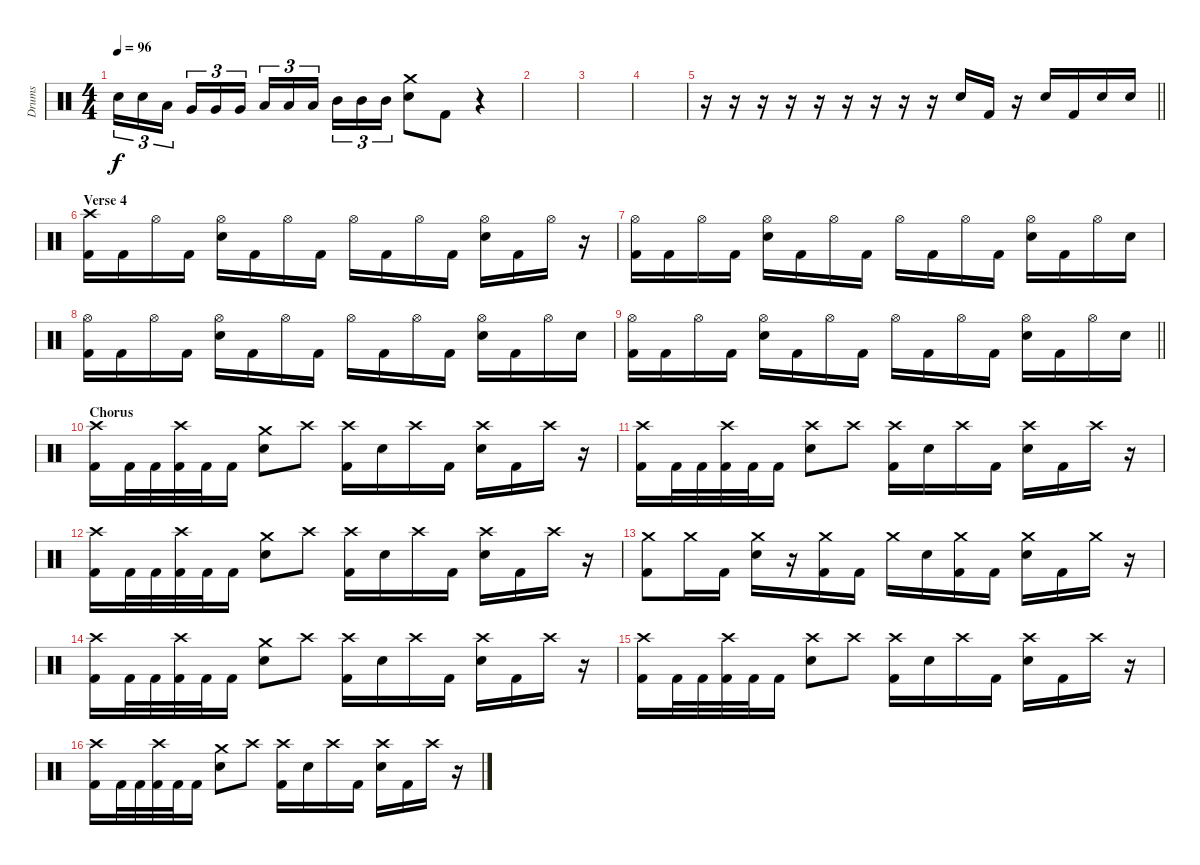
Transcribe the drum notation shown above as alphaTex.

\track ("Drums" "Drums") {instrument percussion}
\staff {score}
\articulation defaults
\ts (4 4)
\tempo 96
\clef neutral
\ks c "Electric Snare (hit)".16{tu (3 2) dy f} "Electric Snare (hit)".16{tu (3 2)} "Low Floor Tom (hit)".16{tu (3 2)} "Very Low Tom (hit)".16{tu (3 2)} "Very Low Tom (hit)".16{tu (3 2)} "Very Low Tom (hit)".16{tu (3 2)} "Low Tom (hit)".16{tu (3 2)} "Low Tom (hit)".16{tu (3 2)} "Low Tom (hit)".16{tu (3 2)} "Mid Tom (hit)".16{tu (3 2)} "Mid Tom (hit)".16{tu (3 2)} "Mid Tom (hit)".16{tu (3 2)}
("Electric Snare (hit)" "Crash medium (hit)").8 "Kick (hit) 2".8 r.4 |
|
|
|
\barLineRight lightlight
r.16 r.16 r.16 r.16 r.16 r.16 r.16 r.16 r.16 "Electric Snare (hit)".16 "Kick (hit) 2".16 r.16 "Electric Snare (hit)".16 "Kick (hit) 2".16 "Electric Snare (hit)".16 "Electric Snare (hit)".16 |
\section ("" "Verse 4")
("Crash high (hit)" "Kick (hit) 2").16 "Kick (hit) 2".16 "Hi-Hat (open)".16 "Kick (hit) 2".16 ("Hi-Hat (open)" "Electric Snare (hit)").16 "Kick (hit) 2".16 "Hi-Hat (open)".16 "Kick (hit) 2".16 "Hi-Hat (open)".16 "Kick (hit) 2".16 "Hi-Hat (open)".16 "Kick (hit) 2".16 ("Hi-Hat (open)" "Electric Snare (hit)").16 "Kick (hit) 2".16 "Hi-Hat (open)".16 r.16 |
("Hi-Hat (open)" "Kick (hit) 2").16 "Kick (hit) 2".16 "Hi-Hat (open)".16 "Kick (hit) 2".16 ("Hi-Hat (open)" "Electric Snare (hit)").16 "Kick (hit) 2".16 "Hi-Hat (open)".16 "Kick (hit) 2".16 "Hi-Hat (open)".16 "Kick (hit) 2".16 "Hi-Hat (open)".16 "Kick (hit) 2".16 ("Hi-Hat (open)" "Electric Snare (hit)").16 "Kick (hit) 2".16 "Hi-Hat (open)".16 "Electric Snare (hit)".16 |
("Hi-Hat (open)" "Kick (hit) 2").16 "Kick (hit) 2".16 "Hi-Hat (open)".16 "Kick (hit) 2".16 ("Hi-Hat (open)" "Electric Snare (hit)").16 "Kick (hit) 2".16 "Hi-Hat (open)".16 "Kick (hit) 2".16 "Hi-Hat (open)".16 "Kick (hit) 2".16 "Hi-Hat (open)".16 "Kick (hit) 2".16 ("Hi-Hat (open)" "Electric Snare (hit)").16 "Kick (hit) 2".16 "Hi-Hat (open)".16 "Electric Snare (hit)".16 |
\barLineRight lightlight
("Hi-Hat (open)" "Kick (hit) 2").16 "Kick (hit) 2".16 "Hi-Hat (open)".16 "Kick (hit) 2".16 ("Hi-Hat (open)" "Electric Snare (hit)").16 "Kick (hit) 2".16 "Hi-Hat (open)".16 "Kick (hit) 2".16 "Hi-Hat (open)".16 "Kick (hit) 2".16 "Hi-Hat (open)".16 "Kick (hit) 2".16 ("Hi-Hat (open)" "Electric Snare (hit)").16 "Kick (hit) 2".16 "Hi-Hat (open)".16 "Electric Snare (hit)".16 |
\section ("" "Chorus")
("Crash high (hit)" "Kick (hit) 2").16 "Kick (hit) 2".32 "Kick (hit) 2".32 ("Crash high (hit)" "Kick (hit) 2").32 "Kick (hit) 2".32 "Kick (hit) 2".16 ("Crash medium (hit)" "Electric Snare (hit)").8 "Crash high (hit)".8 ("Crash high (hit)" "Kick (hit) 2").16 "Electric Snare (hit)".16 "Crash high (hit)".16 "Kick (hit) 2".16 ("Crash high (hit)" "Electric Snare (hit)").16 "Kick (hit) 2".16 "Crash high (hit)".16 r.16 |
("Crash high (hit)" "Kick (hit) 2").16 "Kick (hit) 2".32 "Kick (hit) 2".32 ("Crash high (hit)" "Kick (hit) 2").32 "Kick (hit) 2".32 "Kick (hit) 2".16 ("Crash high (hit)" "Electric Snare (hit)").8 "Crash high (hit)".8 ("Crash high (hit)" "Kick (hit) 2").16 "Electric Snare (hit)".16 "Crash high (hit)".16 "Kick (hit) 2".16 ("Crash high (hit)" "Electric Snare (hit)").16 "Kick (hit) 2".16 "Crash high (hit)".16 r.16 |
("Crash high (hit)" "Kick (hit) 2").16 "Kick (hit) 2".32 "Kick (hit) 2".32 ("Crash high (hit)" "Kick (hit) 2").32 "Kick (hit) 2".32 "Kick (hit) 2".16 ("Crash medium (hit)" "Electric Snare (hit)").8 "Crash high (hit)".8 ("Crash high (hit)" "Kick (hit) 2").16 "Electric Snare (hit)".16 "Crash high (hit)".16 "Kick (hit) 2".16 ("Crash high (hit)" "Electric Snare (hit)").16 "Kick (hit) 2".16 "Crash high (hit)".16 r.16 |
("Crash medium (hit)" "Kick (hit) 2").8 "Crash medium (hit)".16 "Kick (hit) 2".16 ("Crash medium (hit)" "Electric Snare (hit)").16 r.16 ("Crash medium (hit)" "Kick (hit) 2").16 "Kick (hit) 2".16 "Crash medium (hit)".16 "Electric Snare (hit)".16 ("Crash medium (hit)" "Kick (hit) 2").16 "Kick (hit) 2".16 ("Crash medium (hit)" "Electric Snare (hit)").16 "Kick (hit) 2".16 "Crash medium (hit)".16 r.16 |
("Crash high (hit)" "Kick (hit) 2").16 "Kick (hit) 2".32 "Kick (hit) 2".32 ("Crash high (hit)" "Kick (hit) 2").32 "Kick (hit) 2".32 "Kick (hit) 2".16 ("Crash medium (hit)" "Electric Snare (hit)").8 "Crash high (hit)".8 ("Crash high (hit)" "Kick (hit) 2").16 "Electric Snare (hit)".16 "Crash high (hit)".16 "Kick (hit) 2".16 ("Crash high (hit)" "Electric Snare (hit)").16 "Kick (hit) 2".16 "Crash high (hit)".16 r.16 |
("Crash high (hit)" "Kick (hit) 2").16 "Kick (hit) 2".32 "Kick (hit) 2".32 ("Crash high (hit)" "Kick (hit) 2").32 "Kick (hit) 2".32 "Kick (hit) 2".16 ("Crash high (hit)" "Electric Snare (hit)").8 "Crash high (hit)".8 ("Crash high (hit)" "Kick (hit) 2").16 "Electric Snare (hit)".16 "Crash high (hit)".16 "Kick (hit) 2".16 ("Crash high (hit)" "Electric Snare (hit)").16 "Kick (hit) 2".16 "Crash high (hit)".16 r.16 |
("Crash high (hit)" "Kick (hit) 2").16 "Kick (hit) 2".32 "Kick (hit) 2".32 ("Crash high (hit)" "Kick (hit) 2").32 "Kick (hit) 2".32 "Kick (hit) 2".16 ("Crash medium (hit)" "Electric Snare (hit)").8 "Crash high (hit)".8 ("Crash high (hit)" "Kick (hit) 2").16 "Electric Snare (hit)".16 "Crash high (hit)".16 "Kick (hit) 2".16 ("Crash high (hit)" "Electric Snare (hit)").16 "Kick (hit) 2".16 "Crash high (hit)".16 r.16
